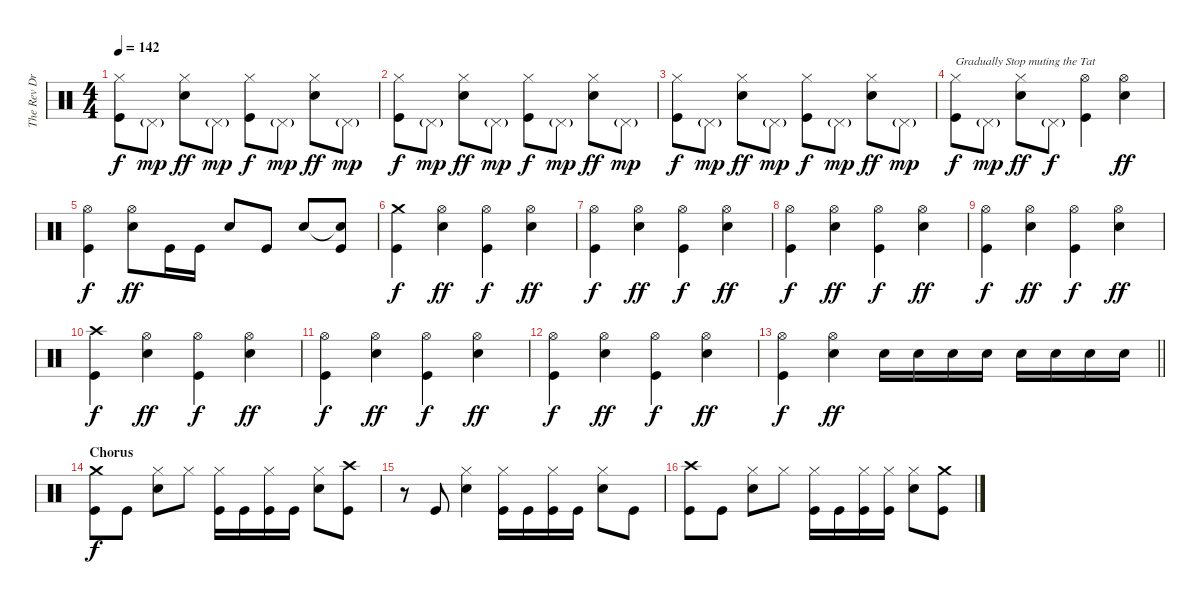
\track ("The Rev Drums" "The Rev Dr") {instrument percussion}
\staff {score}
\articulation defaults
\ts (4 4)
\tempo 142
\clef neutral
\ks c
("Hi-Hat (closed)" "Kick (hit)").8{dy f} "Pedal Hi-Hat (hit)"{g}.8{dy mp} ("Hi-Hat (closed)" "Electric Snare (hit)").8{dy ff} "Pedal Hi-Hat (hit)"{g}.8{dy mp} ("Hi-Hat (closed)" "Kick (hit)").8{dy f} "Pedal Hi-Hat (hit)"{g}.8{dy mp} ("Hi-Hat (closed)" "Electric Snare (hit)").8{dy ff} "Pedal Hi-Hat (hit)"{g}.8{dy mp} |
("Hi-Hat (closed)" "Kick (hit)").8{dy f} "Pedal Hi-Hat (hit)"{g}.8{dy mp} ("Hi-Hat (closed)" "Electric Snare (hit)").8{dy ff} "Pedal Hi-Hat (hit)"{g}.8{dy mp} ("Hi-Hat (closed)" "Kick (hit)").8{dy f} "Pedal Hi-Hat (hit)"{g}.8{dy mp} ("Hi-Hat (closed)" "Electric Snare (hit)").8{dy ff} "Pedal Hi-Hat (hit)"{g}.8{dy mp} |
("Hi-Hat (closed)" "Kick (hit)").8{dy f} "Pedal Hi-Hat (hit)"{g}.8{dy mp} ("Hi-Hat (closed)" "Electric Snare (hit)").8{dy ff} "Pedal Hi-Hat (hit)"{g}.8{dy mp} ("Hi-Hat (closed)" "Kick (hit)").8{dy f} "Pedal Hi-Hat (hit)"{g}.8{dy mp} ("Hi-Hat (closed)" "Electric Snare (hit)").8{dy ff} "Pedal Hi-Hat (hit)"{g}.8{dy mp} |
("Hi-Hat (closed)" "Kick (hit)").8{txt "Gradually Stop muting the Tat" dy f} "Pedal Hi-Hat (hit)"{g}.8{dy mp} ("Hi-Hat (closed)" "Electric Snare (hit)").8{dy ff} "Pedal Hi-Hat (hit)"{g}.8{dy f} ("Hi-Hat (open)" "Kick (hit)").4 ("Hi-Hat (open)" "Electric Snare (hit)").4{dy ff} |
("Hi-Hat (open)" "Kick (hit)").4{dy f} ("Hi-Hat (open)" "Electric Snare (hit)").8{dy ff} "Kick (hit)".16 "Kick (hit)".16 "Electric Snare (hit)".8 "Kick (hit)".8 "Electric Snare (hit)".8 ("Snare (hit)"{t} "Kick (hit)").8 |
("Crash medium (hit)" "Kick (hit)").4{dy f} ("Hi-Hat (open)" "Electric Snare (hit)").4{dy ff} ("Hi-Hat (open)" "Kick (hit)").4{dy f} ("Hi-Hat (open)" "Electric Snare (hit)").4{dy ff} |
("Hi-Hat (open)" "Kick (hit)").4{dy f} ("Hi-Hat (open)" "Electric Snare (hit)").4{dy ff} ("Hi-Hat (open)" "Kick (hit)").4{dy f} ("Hi-Hat (open)" "Electric Snare (hit)").4{dy ff} |
("Hi-Hat (open)" "Kick (hit)").4{dy f} ("Hi-Hat (open)" "Electric Snare (hit)").4{dy ff} ("Hi-Hat (open)" "Kick (hit)").4{dy f} ("Hi-Hat (open)" "Electric Snare (hit)").4{dy ff} |
("Hi-Hat (open)" "Kick (hit)").4{dy f} ("Hi-Hat (open)" "Electric Snare (hit)").4{dy ff} ("Hi-Hat (open)" "Kick (hit)").4{dy f} ("Hi-Hat (open)" "Electric Snare (hit)").4{dy ff} |
("Crash high (hit)" "Kick (hit)").4{dy f} ("Hi-Hat (open)" "Electric Snare (hit)").4{dy ff} ("Hi-Hat (open)" "Kick (hit)").4{dy f} ("Hi-Hat (open)" "Electric Snare (hit)").4{dy ff} |
("Hi-Hat (open)" "Kick (hit)").4{dy f} ("Hi-Hat (open)" "Electric Snare (hit)").4{dy ff} ("Hi-Hat (open)" "Kick (hit)").4{dy f} ("Hi-Hat (open)" "Electric Snare (hit)").4{dy ff} |
("Hi-Hat (open)" "Kick (hit)").4{dy f} ("Hi-Hat (open)" "Electric Snare (hit)").4{dy ff} ("Hi-Hat (open)" "Kick (hit)").4{dy f} ("Hi-Hat (open)" "Electric Snare (hit)").4{dy ff} |
\barLineRight lightlight
("Hi-Hat (open)" "Kick (hit)").4{dy f} ("Hi-Hat (open)" "Electric Snare (hit)").4{dy ff} "Electric Snare (hit)".16 "Electric Snare (hit)".16 "Electric Snare (hit)".16 "Electric Snare (hit)".16 "Electric Snare (hit)".16 "Electric Snare (hit)".16 "Electric Snare (hit)".16 "Electric Snare (hit)".16 |
\section ("" "Chorus")
("Crash medium (hit)" "Kick (hit)").8{dy f} "Kick (hit)".8 ("Hi-Hat (closed)" "Electric Snare (hit)").8 "Hi-Hat (closed)".8 ("Hi-Hat (closed)" "Kick (hit)").16 "Kick (hit)".16 ("Hi-Hat (closed)" "Kick (hit)").16 "Kick (hit)".16 ("Hi-Hat (closed)" "Electric Snare (hit)").8 ("Crash high (hit)" "Kick (hit)").8 |
r.8 "Kick (hit)".8 ("Hi-Hat (closed)" "Electric Snare (hit)").4 ("Hi-Hat (closed)" "Kick (hit)").16 "Kick (hit)".16 ("Hi-Hat (closed)" "Kick (hit)").16 "Kick (hit)".16 ("Hi-Hat (closed)" "Electric Snare (hit)").8 "Kick (hit)".8 |
("Crash high (hit)" "Kick (hit)").8 "Kick (hit)".8 ("Hi-Hat (closed)" "Electric Snare (hit)").8 "Hi-Hat (closed)".8 ("Hi-Hat (closed)" "Kick (hit)").16 "Kick (hit)".16 ("Hi-Hat (closed)" "Kick (hit)").16 ("Hi-Hat (closed)" "Kick (hit)").16 ("Hi-Hat (closed)" "Electric Snare (hit)").8 ("Crash medium (hit)" "Kick (hit)").8
